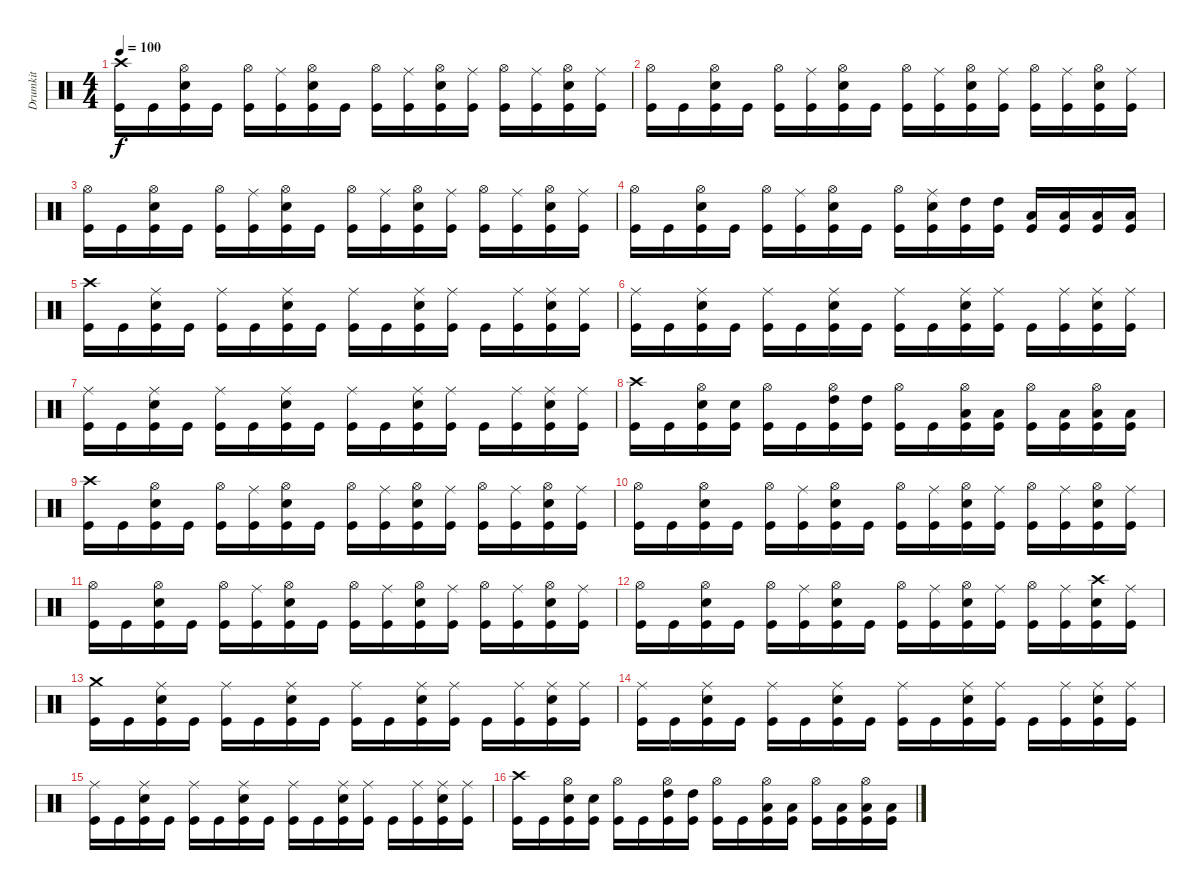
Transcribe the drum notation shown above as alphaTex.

\track ("Drumkit" "Drumkit") {instrument percussion}
\staff {score}
\articulation defaults
\ts (4 4)
\tempo 100
\clef neutral
\ks c
("Crash high (hit)" "Kick (hit)").16{dy f} "Kick (hit)".16 ("Hi-Hat (open)" "Snare (hit) 2" "Kick (hit)").16 "Kick (hit)".16 ("Hi-Hat (open)" "Kick (hit)").16 ("Ride (middle)" "Kick (hit)").16 ("Hi-Hat (open)" "Snare (hit) 2" "Kick (hit)").16 "Kick (hit)".16 ("Hi-Hat (open)" "Kick (hit)").16 ("Ride (middle)" "Kick (hit)").16 ("Hi-Hat (open)" "Snare (hit) 2" "Kick (hit)").16 ("Ride (middle)" "Kick (hit)").16 ("Hi-Hat (open)" "Kick (hit)").16 ("Ride (middle)" "Kick (hit)").16 ("Hi-Hat (open)" "Snare (hit) 2" "Kick (hit)").16 ("Ride (middle)" "Kick (hit)").16 |
("Hi-Hat (open)" "Kick (hit)").16 "Kick (hit)".16 ("Hi-Hat (open)" "Snare (hit) 2" "Kick (hit)").16 "Kick (hit)".16 ("Hi-Hat (open)" "Kick (hit)").16 ("Ride (middle)" "Kick (hit)").16 ("Hi-Hat (open)" "Snare (hit) 2" "Kick (hit)").16 "Kick (hit)".16 ("Hi-Hat (open)" "Kick (hit)").16 ("Ride (middle)" "Kick (hit)").16 ("Hi-Hat (open)" "Snare (hit) 2" "Kick (hit)").16 ("Ride (middle)" "Kick (hit)").16 ("Hi-Hat (open)" "Kick (hit)").16 ("Ride (middle)" "Kick (hit)").16 ("Hi-Hat (open)" "Snare (hit) 2" "Kick (hit)").16 ("Ride (middle)" "Kick (hit)").16 |
("Hi-Hat (open)" "Kick (hit)").16 "Kick (hit)".16 ("Hi-Hat (open)" "Snare (hit) 2" "Kick (hit)").16 "Kick (hit)".16 ("Hi-Hat (open)" "Kick (hit)").16 ("Ride (middle)" "Kick (hit)").16 ("Hi-Hat (open)" "Snare (hit) 2" "Kick (hit)").16 "Kick (hit)".16 ("Hi-Hat (open)" "Kick (hit)").16 ("Ride (middle)" "Kick (hit)").16 ("Hi-Hat (open)" "Snare (hit) 2" "Kick (hit)").16 ("Ride (middle)" "Kick (hit)").16 ("Hi-Hat (open)" "Kick (hit)").16 ("Ride (middle)" "Kick (hit)").16 ("Hi-Hat (open)" "Snare (hit) 2" "Kick (hit)").16 ("Ride (middle)" "Kick (hit)").16 |
("Hi-Hat (open)" "Kick (hit)").16 "Kick (hit)".16 ("Hi-Hat (open)" "Snare (hit) 2" "Kick (hit)").16 "Kick (hit)".16 ("Hi-Hat (open)" "Kick (hit)").16 ("Ride (middle)" "Kick (hit)").16 ("Hi-Hat (open)" "Snare (hit) 2" "Kick (hit)").16 "Kick (hit)".16 ("Hi-Hat (open)" "Kick (hit)").16 ("Ride (middle)" "Snare (hit) 2" "Kick (hit)").16 ("High Tom (hit)" "Kick (hit)").16 ("High Tom (hit)" "Kick (hit)").16 ("Low Tom (hit)" "Kick (hit)").16 ("Low Tom (hit)" "Kick (hit)").16 ("Low Floor Tom (hit)" "Kick (hit)").16 ("Low Floor Tom (hit)" "Kick (hit)").16 |
("Crash high (hit)" "Kick (hit)").16 "Kick (hit)".16 ("Ride (middle)" "Snare (hit) 2" "Kick (hit)").16 "Kick (hit)".16 ("Ride (middle)" "Kick (hit)").16 "Kick (hit)".16 ("Ride (middle)" "Snare (hit) 2" "Kick (hit)").16 "Kick (hit)".16 ("Ride (middle)" "Kick (hit)").16 "Kick (hit)".16 ("Ride (middle)" "Snare (hit) 2" "Kick (hit)").16 ("Ride (middle)" "Kick (hit)").16 "Kick (hit)".16 ("Ride (middle)" "Kick (hit)").16 ("Ride (middle)" "Snare (hit) 2" "Kick (hit)").16 ("Ride (middle)" "Kick (hit)").16 |
("Ride (middle)" "Kick (hit)").16 "Kick (hit)".16 ("Ride (middle)" "Snare (hit) 2" "Kick (hit)").16 "Kick (hit)".16 ("Ride (middle)" "Kick (hit)").16 "Kick (hit)".16 ("Ride (middle)" "Snare (hit) 2" "Kick (hit)").16 "Kick (hit)".16 ("Ride (middle)" "Kick (hit)").16 "Kick (hit)".16 ("Ride (middle)" "Snare (hit) 2" "Kick (hit)").16 ("Ride (middle)" "Kick (hit)").16 "Kick (hit)".16 ("Ride (middle)" "Kick (hit)").16 ("Ride (middle)" "Snare (hit) 2" "Kick (hit)").16 ("Ride (middle)" "Kick (hit)").16 |
("Ride (middle)" "Kick (hit)").16 "Kick (hit)".16 ("Ride (middle)" "Snare (hit) 2" "Kick (hit)").16 "Kick (hit)".16 ("Ride (middle)" "Kick (hit)").16 "Kick (hit)".16 ("Ride (middle)" "Snare (hit) 2" "Kick (hit)").16 "Kick (hit)".16 ("Ride (middle)" "Kick (hit)").16 "Kick (hit)".16 ("Ride (middle)" "Snare (hit) 2" "Kick (hit)").16 ("Ride (middle)" "Kick (hit)").16 "Kick (hit)".16 ("Ride (middle)" "Kick (hit)").16 ("Ride (middle)" "Snare (hit) 2" "Kick (hit)").16 ("Ride (middle)" "Kick (hit)").16 |
("Crash high (hit)" "Kick (hit)").16 "Kick (hit)".16 ("Hi-Hat (open)" "Snare (hit) 2" "Kick (hit)").16 ("Snare (hit) 2" "Kick (hit)").16 ("Hi-Hat (open)" "Kick (hit)").16 "Kick (hit)".16 ("High Tom (hit)" "Hi-Hat (open)" "Kick (hit)").16 ("High Tom (hit)" "Kick (hit)").16 ("Hi-Hat (open)" "Kick (hit)").16 "Kick (hit)".16 ("Low Tom (hit)" "Hi-Hat (open)" "Kick (hit)").16 ("Low Tom (hit)" "Kick (hit)").16 ("Hi-Hat (open)" "Kick (hit)").16 ("Low Floor Tom (hit)" "Kick (hit)").16 ("Low Floor Tom (hit)" "Hi-Hat (open)" "Kick (hit)").16 ("Low Floor Tom (hit)" "Kick (hit)").16 |
("Crash high (hit)" "Kick (hit)").16 "Kick (hit)".16 ("Hi-Hat (open)" "Snare (hit) 2" "Kick (hit)").16 "Kick (hit)".16 ("Hi-Hat (open)" "Kick (hit)").16 ("Ride (middle)" "Kick (hit)").16 ("Hi-Hat (open)" "Snare (hit) 2" "Kick (hit)").16 "Kick (hit)".16 ("Hi-Hat (open)" "Kick (hit)").16 ("Ride (middle)" "Kick (hit)").16 ("Hi-Hat (open)" "Snare (hit) 2" "Kick (hit)").16 ("Ride (middle)" "Kick (hit)").16 ("Hi-Hat (open)" "Kick (hit)").16 ("Ride (middle)" "Kick (hit)").16 ("Hi-Hat (open)" "Snare (hit) 2" "Kick (hit)").16 ("Ride (middle)" "Kick (hit)").16 |
("Hi-Hat (open)" "Kick (hit)").16 "Kick (hit)".16 ("Hi-Hat (open)" "Snare (hit) 2" "Kick (hit)").16 "Kick (hit)".16 ("Hi-Hat (open)" "Kick (hit)").16 ("Ride (middle)" "Kick (hit)").16 ("Hi-Hat (open)" "Snare (hit) 2" "Kick (hit)").16 "Kick (hit)".16 ("Hi-Hat (open)" "Kick (hit)").16 ("Ride (middle)" "Kick (hit)").16 ("Hi-Hat (open)" "Snare (hit) 2" "Kick (hit)").16 ("Ride (middle)" "Kick (hit)").16 ("Hi-Hat (open)" "Kick (hit)").16 ("Ride (middle)" "Kick (hit)").16 ("Hi-Hat (open)" "Snare (hit) 2" "Kick (hit)").16 ("Ride (middle)" "Kick (hit)").16 |
("Hi-Hat (open)" "Kick (hit)").16 "Kick (hit)".16 ("Hi-Hat (open)" "Snare (hit) 2" "Kick (hit)").16 "Kick (hit)".16 ("Hi-Hat (open)" "Kick (hit)").16 ("Ride (middle)" "Kick (hit)").16 ("Hi-Hat (open)" "Snare (hit) 2" "Kick (hit)").16 "Kick (hit)".16 ("Hi-Hat (open)" "Kick (hit)").16 ("Ride (middle)" "Kick (hit)").16 ("Hi-Hat (open)" "Snare (hit) 2" "Kick (hit)").16 ("Ride (middle)" "Kick (hit)").16 ("Hi-Hat (open)" "Kick (hit)").16 ("Ride (middle)" "Kick (hit)").16 ("Hi-Hat (open)" "Snare (hit) 2" "Kick (hit)").16 ("Ride (middle)" "Kick (hit)").16 |
("Hi-Hat (open)" "Kick (hit)").16 "Kick (hit)".16 ("Hi-Hat (open)" "Snare (hit) 2" "Kick (hit)").16 "Kick (hit)".16 ("Hi-Hat (open)" "Kick (hit)").16 ("Ride (middle)" "Kick (hit)").16 ("Hi-Hat (open)" "Snare (hit) 2" "Kick (hit)").16 "Kick (hit)".16 ("Hi-Hat (open)" "Kick (hit)").16 ("Ride (middle)" "Kick (hit)").16 ("Hi-Hat (open)" "Snare (hit) 2" "Kick (hit)").16 ("Ride (middle)" "Kick (hit)").16 ("Hi-Hat (open)" "Kick (hit)").16 ("Ride (middle)" "Kick (hit)").16 ("Crash high (hit)" "Snare (hit) 2" "Kick (hit)").16 ("Ride (middle)" "Kick (hit)").16 |
("Crash medium (hit)" "Kick (hit)").16 "Kick (hit)".16 ("Ride (middle)" "Snare (hit) 2" "Kick (hit)").16 "Kick (hit)".16 ("Ride (middle)" "Kick (hit)").16 "Kick (hit)".16 ("Ride (middle)" "Snare (hit) 2" "Kick (hit)").16 "Kick (hit)".16 ("Ride (middle)" "Kick (hit)").16 "Kick (hit)".16 ("Ride (middle)" "Snare (hit) 2" "Kick (hit)").16 ("Ride (middle)" "Kick (hit)").16 "Kick (hit)".16 ("Ride (middle)" "Kick (hit)").16 ("Ride (middle)" "Snare (hit) 2" "Kick (hit)").16 ("Ride (middle)" "Kick (hit)").16 |
("Ride (middle)" "Kick (hit)").16 "Kick (hit)".16 ("Ride (middle)" "Snare (hit) 2" "Kick (hit)").16 "Kick (hit)".16 ("Ride (middle)" "Kick (hit)").16 "Kick (hit)".16 ("Ride (middle)" "Snare (hit) 2" "Kick (hit)").16 "Kick (hit)".16 ("Ride (middle)" "Kick (hit)").16 "Kick (hit)".16 ("Ride (middle)" "Snare (hit) 2" "Kick (hit)").16 ("Ride (middle)" "Kick (hit)").16 "Kick (hit)".16 ("Ride (middle)" "Kick (hit)").16 ("Ride (middle)" "Snare (hit) 2" "Kick (hit)").16 ("Ride (middle)" "Kick (hit)").16 |
("Ride (middle)" "Kick (hit)").16 "Kick (hit)".16 ("Ride (middle)" "Snare (hit) 2" "Kick (hit)").16 "Kick (hit)".16 ("Ride (middle)" "Kick (hit)").16 "Kick (hit)".16 ("Ride (middle)" "Snare (hit) 2" "Kick (hit)").16 "Kick (hit)".16 ("Ride (middle)" "Kick (hit)").16 "Kick (hit)".16 ("Ride (middle)" "Snare (hit) 2" "Kick (hit)").16 ("Ride (middle)" "Kick (hit)").16 "Kick (hit)".16 ("Ride (middle)" "Kick (hit)").16 ("Ride (middle)" "Snare (hit) 2" "Kick (hit)").16 ("Ride (middle)" "Kick (hit)").16 |
("Crash high (hit)" "Kick (hit)").16 "Kick (hit)".16 ("Hi-Hat (open)" "Snare (hit) 2" "Kick (hit)").16 ("Snare (hit) 2" "Kick (hit)").16 ("Hi-Hat (open)" "Kick (hit)").16 "Kick (hit)".16 ("High Tom (hit)" "Hi-Hat (open)" "Kick (hit)").16 ("High Tom (hit)" "Kick (hit)").16 ("Hi-Hat (open)" "Kick (hit)").16 "Kick (hit)".16 ("Low Tom (hit)" "Hi-Hat (open)" "Kick (hit)").16 ("Low Tom (hit)" "Kick (hit)").16 ("Hi-Hat (open)" "Kick (hit)").16 ("Low Floor Tom (hit)" "Kick (hit)").16 ("Low Floor Tom (hit)" "Hi-Hat (open)" "Kick (hit)").16 ("Low Floor Tom (hit)" "Kick (hit)").16
